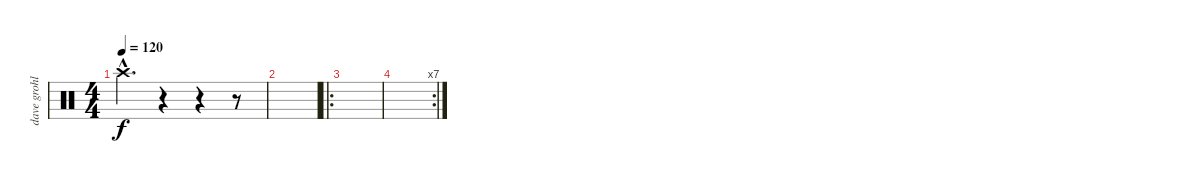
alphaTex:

\track ("dave grohl" "dave grohl") {instrument percussion}
\staff {score}
\articulation defaults
\ts (4 4)
\tempo 120
\clef neutral
\ks c "Crash high (hit)"{hac}.4{d dy f}
r.4 r.4 r.8 |
|
\ro
|
\rc 7
